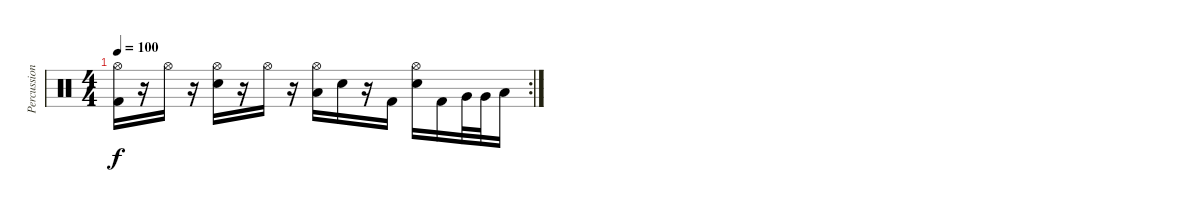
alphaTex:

\track ("Percussion" "Percussion") {instrument percussion}
\staff {score}
\articulation defaults
\rc 2
\ts (4 4)
\tempo 100
\clef neutral
\ks c
("Kick (hit) 2" "Hi-Hat (open)").16{dy f} r.16 "Hi-Hat (open)".16 r.16 ("Electric Snare (hit)" "Hi-Hat (open)").16 r.16 "Hi-Hat (open)".16 r.16 ("Low Tom (hit)" "Hi-Hat (open)").16 "Electric Snare (hit)".16 r.16 "Kick (hit) 2".16 ("Electric Snare (hit)" "Hi-Hat (open)").16 "Kick (hit) 2".16 "Very Low Tom (hit)".32 "Very Low Tom (hit)".32 "Low Floor Tom (hit)".16
